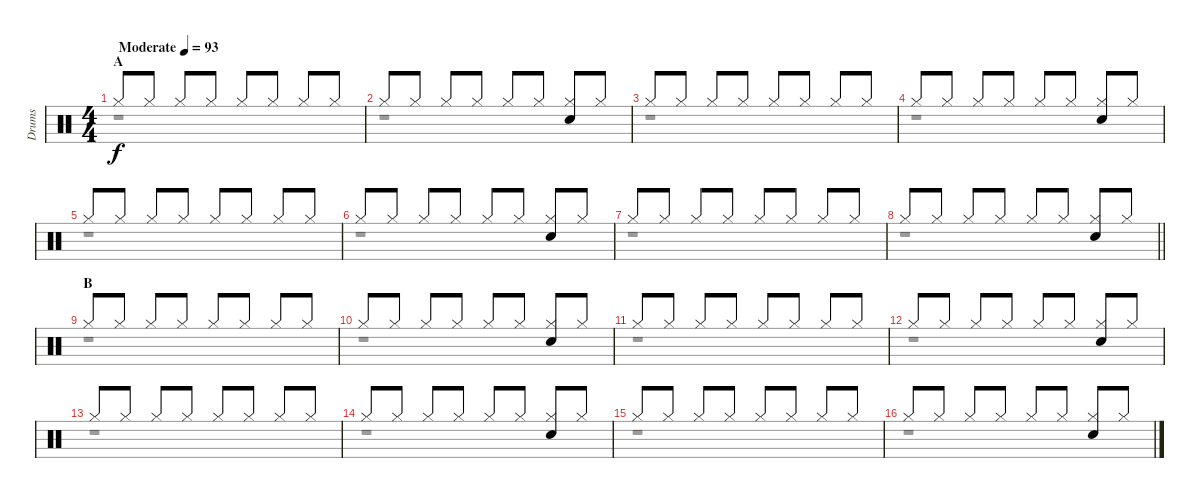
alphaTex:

\track ("Drums" "Drums") {instrument percussion}
\staff {score}
\articulation defaults
\voice
\ts (4 4)
\section ("" "A")
\tempo (93 "Moderate")
\clef neutral
\ks c "Hi-Hat (closed)".8{dy f} "Hi-Hat (closed)".8 "Hi-Hat (closed)".8 "Hi-Hat (closed)".8 "Hi-Hat (closed)".8 "Hi-Hat (closed)".8 "Hi-Hat (closed)".8 "Hi-Hat (closed)".8
|
"Hi-Hat (closed)".8 "Hi-Hat (closed)".8 "Hi-Hat (closed)".8 "Hi-Hat (closed)".8 "Hi-Hat (closed)".8 "Hi-Hat (closed)".8 ("Hi-Hat (closed)" "Snare (hit) 2").8 "Hi-Hat (closed)".8 |
"Hi-Hat (closed)".8 "Hi-Hat (closed)".8 "Hi-Hat (closed)".8 "Hi-Hat (closed)".8 "Hi-Hat (closed)".8 "Hi-Hat (closed)".8 "Hi-Hat (closed)".8 "Hi-Hat (closed)".8 |
"Hi-Hat (closed)".8 "Hi-Hat (closed)".8 "Hi-Hat (closed)".8 "Hi-Hat (closed)".8 "Hi-Hat (closed)".8 "Hi-Hat (closed)".8 ("Hi-Hat (closed)" "Snare (hit) 2").8 "Hi-Hat (closed)".8 |
"Hi-Hat (closed)".8 "Hi-Hat (closed)".8 "Hi-Hat (closed)".8 "Hi-Hat (closed)".8 "Hi-Hat (closed)".8 "Hi-Hat (closed)".8 "Hi-Hat (closed)".8 "Hi-Hat (closed)".8 |
"Hi-Hat (closed)".8 "Hi-Hat (closed)".8 "Hi-Hat (closed)".8 "Hi-Hat (closed)".8 "Hi-Hat (closed)".8 "Hi-Hat (closed)".8 ("Hi-Hat (closed)" "Snare (hit) 2").8 "Hi-Hat (closed)".8 |
"Hi-Hat (closed)".8 "Hi-Hat (closed)".8 "Hi-Hat (closed)".8 "Hi-Hat (closed)".8 "Hi-Hat (closed)".8 "Hi-Hat (closed)".8 "Hi-Hat (closed)".8 "Hi-Hat (closed)".8 |
\barLineRight lightlight "Hi-Hat (closed)".8 "Hi-Hat (closed)".8 "Hi-Hat (closed)".8 "Hi-Hat (closed)".8 "Hi-Hat (closed)".8 "Hi-Hat (closed)".8
("Hi-Hat (closed)" "Snare (hit) 2").8 "Hi-Hat (closed)".8 |
\section ("" "B")
"Hi-Hat (closed)".8 "Hi-Hat (closed)".8 "Hi-Hat (closed)".8 "Hi-Hat (closed)".8 "Hi-Hat (closed)".8 "Hi-Hat (closed)".8 "Hi-Hat (closed)".8 "Hi-Hat (closed)".8 |
"Hi-Hat (closed)".8 "Hi-Hat (closed)".8 "Hi-Hat (closed)".8 "Hi-Hat (closed)".8 "Hi-Hat (closed)".8 "Hi-Hat (closed)".8 ("Hi-Hat (closed)" "Snare (hit) 2").8 "Hi-Hat (closed)".8 |
"Hi-Hat (closed)".8 "Hi-Hat (closed)".8 "Hi-Hat (closed)".8 "Hi-Hat (closed)".8 "Hi-Hat (closed)".8 "Hi-Hat (closed)".8 "Hi-Hat (closed)".8 "Hi-Hat (closed)".8 |
"Hi-Hat (closed)".8 "Hi-Hat (closed)".8 "Hi-Hat (closed)".8 "Hi-Hat (closed)".8 "Hi-Hat (closed)".8 "Hi-Hat (closed)".8 ("Hi-Hat (closed)" "Snare (hit) 2").8 "Hi-Hat (closed)".8 |
"Hi-Hat (closed)".8 "Hi-Hat (closed)".8 "Hi-Hat (closed)".8 "Hi-Hat (closed)".8 "Hi-Hat (closed)".8 "Hi-Hat (closed)".8 "Hi-Hat (closed)".8 "Hi-Hat (closed)".8 |
"Hi-Hat (closed)".8 "Hi-Hat (closed)".8 "Hi-Hat (closed)".8 "Hi-Hat (closed)".8 "Hi-Hat (closed)".8 "Hi-Hat (closed)".8 ("Hi-Hat (closed)" "Snare (hit) 2").8 "Hi-Hat (closed)".8 |
"Hi-Hat (closed)".8 "Hi-Hat (closed)".8 "Hi-Hat (closed)".8 "Hi-Hat (closed)".8 "Hi-Hat (closed)".8 "Hi-Hat (closed)".8 "Hi-Hat (closed)".8 "Hi-Hat (closed)".8 |
"Hi-Hat (closed)".8 "Hi-Hat (closed)".8 "Hi-Hat (closed)".8 "Hi-Hat (closed)".8 "Hi-Hat (closed)".8 "Hi-Hat (closed)".8 ("Hi-Hat (closed)" "Snare (hit) 2").8 "Hi-Hat (closed)".8
\voice
\clef neutral
\ottava regular
\simile none
\ks c
r.1{dy fff} |
r.1 |
r.1 |
r.1 |
r.1 |
r.1 |
r.1 |
\barLineRight lightlight
r.1 |
r.1 |
r.1 |
r.1 |
r.1 |
r.1 |
r.1 |
r.1 |
r.1
